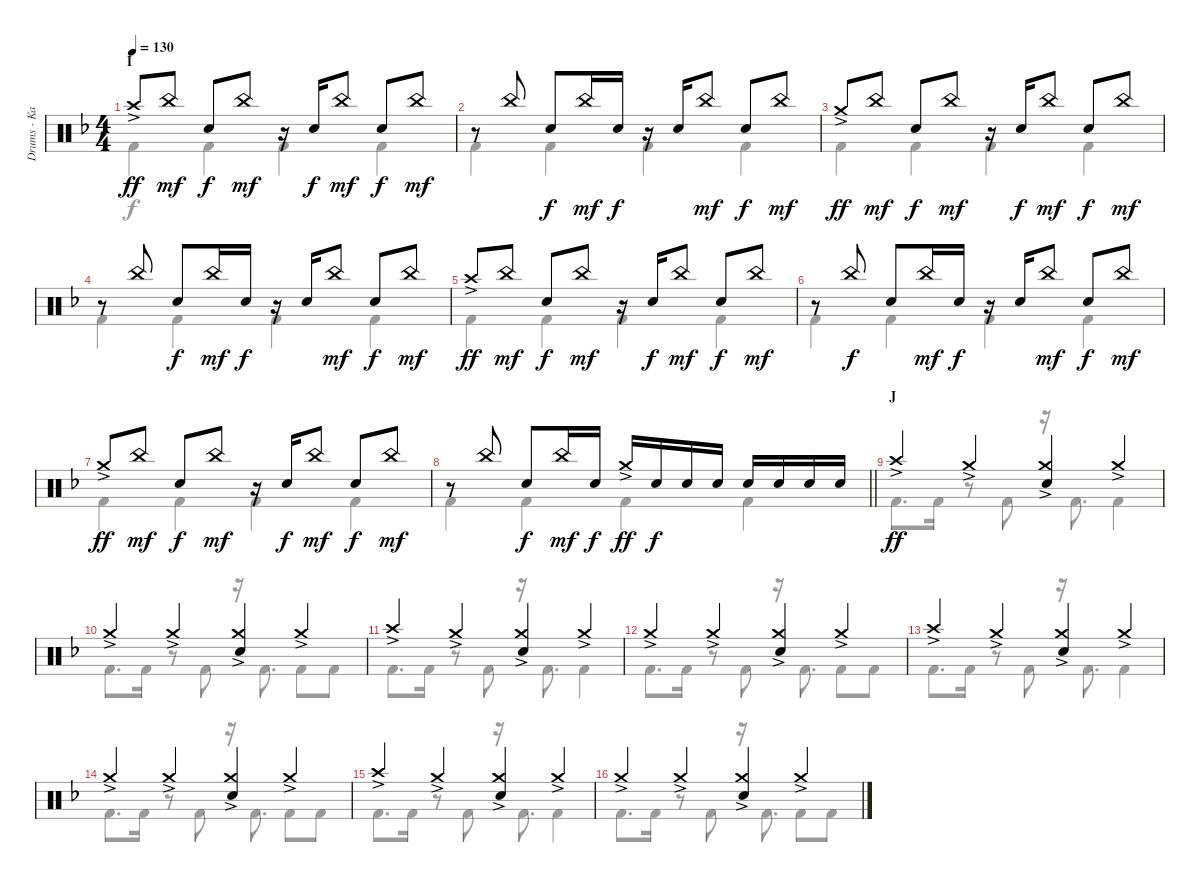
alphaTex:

\track ("Drums - Kai" "Drums - Ka") {instrument percussion}
\staff {score}
\articulation defaults
\voice
\ts (4 4)
\section ("" "I")
\tempo 130
\clef neutral
\ks f "Crash high (hit)"{ac}.8{dy ff} "China (hit)".8{dy mf} "Electric Snare (hit)".8{dy f} "China (hit)".8{dy mf}
r.16 "Electric Snare (hit)".16{dy f} "China (hit)".8{dy mf} "Electric Snare (hit)".8{dy f} "China (hit)".8{dy mf} |
r.8 "China (hit)".8 "Electric Snare (hit)".8{dy f} "China (hit)".16{dy mf} "Electric Snare (hit)".16{dy f} r.16 "Electric Snare (hit)".16 "China (hit)".8{dy mf} "Electric Snare (hit)".8{dy f} "China (hit)".8{dy mf} |
"Crash medium (hit)"{ac}.8{dy ff} "China (hit)".8{dy mf} "Electric Snare (hit)".8{dy f} "China (hit)".8{dy mf} r.16 "Electric Snare (hit)".16{dy f} "China (hit)".8{dy mf} "Electric Snare (hit)".8{dy f} "China (hit)".8{dy mf} |
r.8 "China (hit)".8 "Electric Snare (hit)".8{dy f} "China (hit)".16{dy mf} "Electric Snare (hit)".16{dy f} r.16 "Electric Snare (hit)".16 "China (hit)".8{dy mf} "Electric Snare (hit)".8{dy f} "China (hit)".8{dy mf} |
"Crash high (hit)"{ac}.8{dy ff} "China (hit)".8{dy mf} "Electric Snare (hit)".8{dy f} "China (hit)".8{dy mf} r.16 "Electric Snare (hit)".16{dy f} "China (hit)".8{dy mf} "Electric Snare (hit)".8{dy f} "China (hit)".8{dy mf} |
r.8 "China (hit)".8{dy f} "Electric Snare (hit)".8 "China (hit)".16{dy mf} "Electric Snare (hit)".16{dy f} r.16 "Electric Snare (hit)".16 "China (hit)".8{dy mf} "Electric Snare (hit)".8{dy f} "China (hit)".8{dy mf} |
"Crash medium (hit)"{ac}.8{dy ff} "China (hit)".8{dy mf} "Electric Snare (hit)".8{dy f} "China (hit)".8{dy mf} r.16 "Electric Snare (hit)".16{dy f} "China (hit)".8{dy mf} "Electric Snare (hit)".8{dy f} "China (hit)".8{dy mf} |
\barLineRight lightlight
r.8 "China (hit)".8 "Electric Snare (hit)".8{dy f} "China (hit)".16{dy mf} "Electric Snare (hit)".16{dy f} "Crash medium (hit)"{ac}.16{dy ff} "Electric Snare (hit)".16{dy f} "Electric Snare (hit)".16 "Electric Snare (hit)".16 "Electric Snare (hit)".16 "Electric Snare (hit)".16 "Electric Snare (hit)".16 "Electric Snare (hit)".16 |
\section ("" "J")
"Crash high (hit)"{ac}.4{dy ff} "Crash medium (hit)"{ac}.4 ("Crash medium (hit)"{ac} "Electric Snare (hit)").4 "Crash medium (hit)"{ac}.4 |
"Crash medium (hit)"{ac}.4 "Crash medium (hit)"{ac}.4 ("Crash medium (hit)"{ac} "Electric Snare (hit)").4 "Crash medium (hit)"{ac}.4 |
"Crash high (hit)"{ac}.4 "Crash medium (hit)"{ac}.4 ("Crash medium (hit)"{ac} "Electric Snare (hit)").4 "Crash medium (hit)"{ac}.4 |
"Crash medium (hit)"{ac}.4 "Crash medium (hit)"{ac}.4 ("Crash medium (hit)"{ac} "Electric Snare (hit)").4 "Crash medium (hit)"{ac}.4 |
"Crash high (hit)"{ac}.4 "Crash medium (hit)"{ac}.4 ("Crash medium (hit)"{ac} "Electric Snare (hit)").4 "Crash medium (hit)"{ac}.4 |
"Crash medium (hit)"{ac}.4 "Crash medium (hit)"{ac}.4 ("Crash medium (hit)"{ac} "Electric Snare (hit)").4 "Crash medium (hit)"{ac}.4 |
"Crash high (hit)"{ac}.4 "Crash medium (hit)"{ac}.4 ("Crash medium (hit)"{ac} "Electric Snare (hit)").4 "Crash medium (hit)"{ac}.4 |
"Crash medium (hit)"{ac}.4 "Crash medium (hit)"{ac}.4 ("Crash medium (hit)"{ac} "Electric Snare (hit)").4 "Crash medium (hit)"{ac}.4
\voice
\clef neutral
\ottava regular
\simile none
\ks f "Kick (hit) 2".4{dy f} "Kick (hit) 2".4 "Kick (hit) 2".4 "Kick (hit) 2".4
|
"Kick (hit) 2".4 "Kick (hit) 2".4 "Kick (hit) 2".4 "Kick (hit) 2".4 |
"Kick (hit) 2".4 "Kick (hit) 2".4 "Kick (hit) 2".4 "Kick (hit) 2".4 |
"Kick (hit) 2".4 "Kick (hit) 2".4 "Kick (hit) 2".4 "Kick (hit) 2".4 |
"Kick (hit) 2".4 "Kick (hit) 2".4 "Kick (hit) 2".4 "Kick (hit) 2".4 |
"Kick (hit) 2".4 "Kick (hit) 2".4 "Kick (hit) 2".4 "Kick (hit) 2".4 |
"Kick (hit) 2".4 "Kick (hit) 2".4 "Kick (hit) 2".4 "Kick (hit) 2".4 |
\barLineRight lightlight "Kick (hit) 2".4 "Kick (hit) 2".4 "Kick (hit) 2".4 "Kick (hit) 2".4
|
"Kick (hit) 2".8{d} "Kick (hit) 2".16 r.8 "Kick (hit) 2".8 r.16 "Kick (hit) 2".8{d} "Kick (hit) 2".4 |
"Kick (hit) 2".8{d} "Kick (hit) 2".16 r.8 "Kick (hit) 2".8 r.16 "Kick (hit) 2".8{d} "Kick (hit) 2".8 "Kick (hit) 2".8 |
"Kick (hit) 2".8{d} "Kick (hit) 2".16 r.8 "Kick (hit) 2".8 r.16 "Kick (hit) 2".8{d} "Kick (hit) 2".4 |
"Kick (hit) 2".8{d} "Kick (hit) 2".16 r.8 "Kick (hit) 2".8 r.16 "Kick (hit) 2".8{d} "Kick (hit) 2".8 "Kick (hit) 2".8 |
"Kick (hit) 2".8{d} "Kick (hit) 2".16 r.8 "Kick (hit) 2".8 r.16 "Kick (hit) 2".8{d} "Kick (hit) 2".4 |
"Kick (hit) 2".8{d} "Kick (hit) 2".16 r.8 "Kick (hit) 2".8 r.16 "Kick (hit) 2".8{d} "Kick (hit) 2".8 "Kick (hit) 2".8 |
"Kick (hit) 2".8{d} "Kick (hit) 2".16 r.8 "Kick (hit) 2".8 r.16 "Kick (hit) 2".8{d} "Kick (hit) 2".4 |
"Kick (hit) 2".8{d} "Kick (hit) 2".16 r.8 "Kick (hit) 2".8 r.16 "Kick (hit) 2".8{d} "Kick (hit) 2".8 "Kick (hit) 2".8
